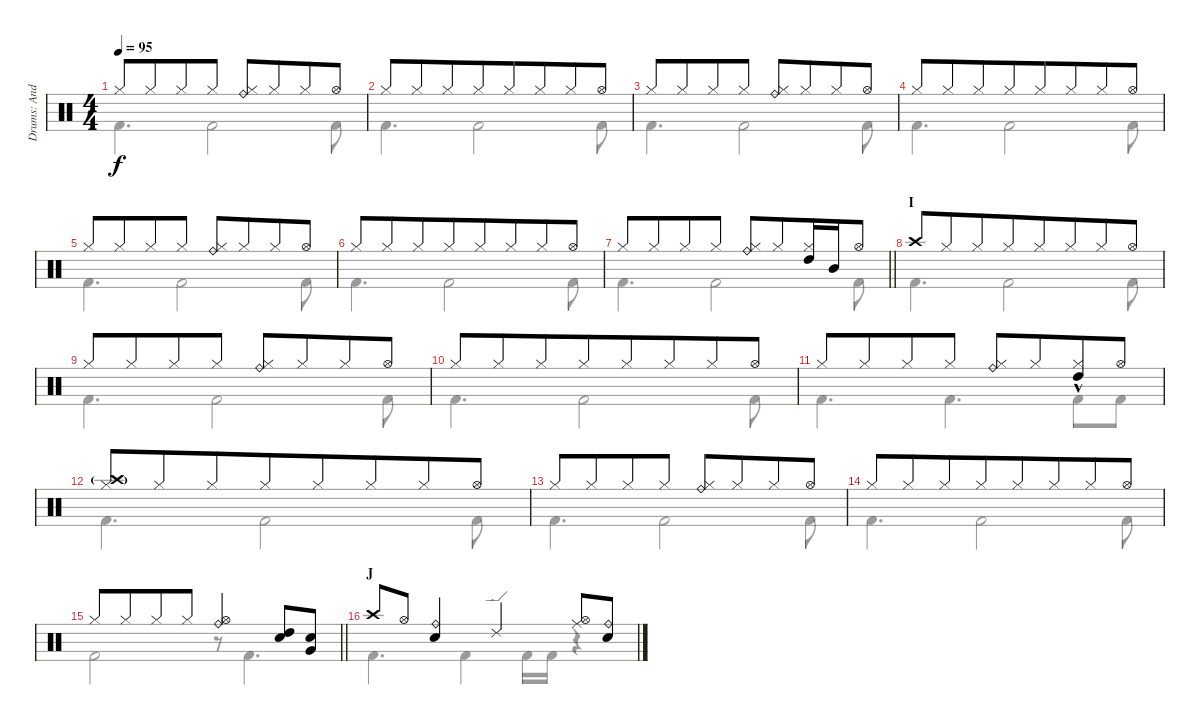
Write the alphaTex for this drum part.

\track ("Drums: Andy" "Drums: And") {instrument percussion}
\staff {score}
\articulation defaults
\voice
\ts (4 4)
\tempo 95
\clef neutral
\ks c "Hi-Hat (closed)".8{dy f} "Hi-Hat (closed)".8{beam merge} "Hi-Hat (closed)".8 "Hi-Hat (closed)".8
("Ride (bell)" "Hi-Hat (closed)").8 "Hi-Hat (closed)".8{beam merge} "Hi-Hat (closed)".8 "Hi-Hat (open)".8 |
"Hi-Hat (closed)".8{beam merge} "Hi-Hat (closed)".8{beam merge} "Hi-Hat (closed)".8 "Hi-Hat (closed)".8{beam merge} "Hi-Hat (closed)".8 "Hi-Hat (closed)".8{beam merge} "Hi-Hat (closed)".8 "Hi-Hat (open)".8 |
"Hi-Hat (closed)".8 "Hi-Hat (closed)".8{beam merge} "Hi-Hat (closed)".8 "Hi-Hat (closed)".8 ("Ride (bell)" "Hi-Hat (closed)").8 "Hi-Hat (closed)".8{beam merge} "Hi-Hat (closed)".8 "Hi-Hat (open)".8 |
"Hi-Hat (closed)".8{beam merge} "Hi-Hat (closed)".8{beam merge} "Hi-Hat (closed)".8 "Hi-Hat (closed)".8{beam merge} "Hi-Hat (closed)".8 "Hi-Hat (closed)".8{beam merge} "Hi-Hat (closed)".8 "Hi-Hat (open)".8 |
"Hi-Hat (closed)".8 "Hi-Hat (closed)".8{beam merge} "Hi-Hat (closed)".8 "Hi-Hat (closed)".8 ("Ride (bell)" "Hi-Hat (closed)").8 "Hi-Hat (closed)".8{beam merge} "Hi-Hat (closed)".8 "Hi-Hat (open)".8 |
"Hi-Hat (closed)".8{beam merge} "Hi-Hat (closed)".8{beam merge} "Hi-Hat (closed)".8 "Hi-Hat (closed)".8{beam merge} "Hi-Hat (closed)".8 "Hi-Hat (closed)".8{beam merge} "Hi-Hat (closed)".8 "Hi-Hat (open)".8 |
\barLineRight lightlight "Hi-Hat (closed)".8 "Hi-Hat (closed)".8{beam merge} "Hi-Hat (closed)".8 "Hi-Hat (closed)".8
("Ride (bell)" "Hi-Hat (closed)").8 "Hi-Hat (closed)".8{beam merge} ("Hi-Hat (closed)" "High Tom (hit)").16 "Mid Tom (hit)".16 "Hi-Hat (open)".8 |
\section ("" "I")
"Crash high (hit)".8{beam merge} "Hi-Hat (closed)".8{beam merge} "Hi-Hat (closed)".8 "Hi-Hat (closed)".8{beam merge} "Hi-Hat (closed)".8 "Hi-Hat (closed)".8{beam merge} "Hi-Hat (closed)".8 "Hi-Hat (open)".8 |
"Hi-Hat (closed)".8 "Hi-Hat (closed)".8{beam merge} "Hi-Hat (closed)".8 "Hi-Hat (closed)".8 ("Ride (bell)" "Hi-Hat (closed)").8 "Hi-Hat (closed)".8{beam merge} "Hi-Hat (closed)".8 "Hi-Hat (open)".8 |
"Hi-Hat (closed)".8{beam merge} "Hi-Hat (closed)".8{beam merge} "Hi-Hat (closed)".8 "Hi-Hat (closed)".8{beam merge} "Hi-Hat (closed)".8 "Hi-Hat (closed)".8{beam merge} "Hi-Hat (closed)".8 "Hi-Hat (open)".8 |
"Hi-Hat (closed)".8 "Hi-Hat (closed)".8{beam merge} "Hi-Hat (closed)".8 "Hi-Hat (closed)".8 ("Ride (bell)" "Hi-Hat (closed)").8 "Hi-Hat (closed)".8{beam merge} ("Hi-Hat (closed)" "High Tom (hit)"{hac}).8 "Hi-Hat (open)".8 |
("Crash high (hit)"{g} "Hi-Hat (closed)").8{beam merge} "Hi-Hat (closed)".8{beam merge} "Hi-Hat (closed)".8 "Hi-Hat (closed)".8{beam merge} "Hi-Hat (closed)".8 "Hi-Hat (closed)".8{beam merge} "Hi-Hat (closed)".8 "Hi-Hat (open)".8 |
"Hi-Hat (closed)".8 "Hi-Hat (closed)".8{beam merge} "Hi-Hat (closed)".8 "Hi-Hat (closed)".8 ("Ride (bell)" "Hi-Hat (closed)").8 "Hi-Hat (closed)".8{beam merge} "Hi-Hat (closed)".8 "Hi-Hat (open)".8 |
"Hi-Hat (closed)".8{beam merge} "Hi-Hat (closed)".8{beam merge} "Hi-Hat (closed)".8 "Hi-Hat (closed)".8{beam merge} "Hi-Hat (closed)".8 "Hi-Hat (closed)".8{beam merge} "Hi-Hat (closed)".8 "Hi-Hat (open)".8 |
\barLineRight lightlight "Hi-Hat (closed)".8 "Hi-Hat (closed)".8{beam merge} "Hi-Hat (closed)".8 "Hi-Hat (closed)".8
("Ride (bell)" "Hi-Hat (open)").4 ("Snare (hit) 2" "High Tom (hit)").8 ("Snare (hit) 2" "Very Low Tom (hit)").8 |
\section ("" "J")
"Crash high (hit)".8 "Hi-Hat (open)".8 ("Ride (bell)" "Electric Snare (hit)").4 "Ride (edge) 2".4 ("Ride (middle)" "Hi-Hat (open)").8 ("Ride (bell)" "Electric Snare (hit)").8
\voice
\clef neutral
\ottava regular
\simile none
\ks c "Kick (hit) 2".4{d dy f} "Kick (hit) 2".2 "Kick (hit) 2".8
|
"Kick (hit) 2".4{d} "Kick (hit) 2".2 "Kick (hit) 2".8 |
"Kick (hit) 2".4{d} "Kick (hit) 2".2 "Kick (hit) 2".8 |
"Kick (hit) 2".4{d} "Kick (hit) 2".2 "Kick (hit) 2".8 |
"Kick (hit) 2".4{d} "Kick (hit) 2".2 "Kick (hit) 2".8 |
"Kick (hit) 2".4{d} "Kick (hit) 2".2 "Kick (hit) 2".8 |
\barLineRight lightlight "Kick (hit) 2".4{d} "Kick (hit) 2".2 "Kick (hit) 2".8
|
"Kick (hit) 2".4{d} "Kick (hit) 2".2 "Kick (hit) 2".8 |
"Kick (hit) 2".4{d} "Kick (hit) 2".2 "Kick (hit) 2".8 |
"Kick (hit) 2".4{d} "Kick (hit) 2".2 "Kick (hit) 2".8 |
"Kick (hit) 2".4{d} "Kick (hit) 2".4{d} "Kick (hit) 2".8 "Kick (hit) 2".8 |
"Kick (hit) 2".4{d} "Kick (hit) 2".2 "Kick (hit) 2".8 |
"Kick (hit) 2".4{d} "Kick (hit) 2".2 "Kick (hit) 2".8 |
"Kick (hit) 2".4{d} "Kick (hit) 2".2 "Kick (hit) 2".8 |
\barLineRight lightlight "Kick (hit) 2".2
r.8 "Kick (hit) 2".4{d} |
"Kick (hit) 2".4{d} "Kick (hit) 2".4 "Kick (hit) 2".16 "Kick (hit) 2".16 r.4
